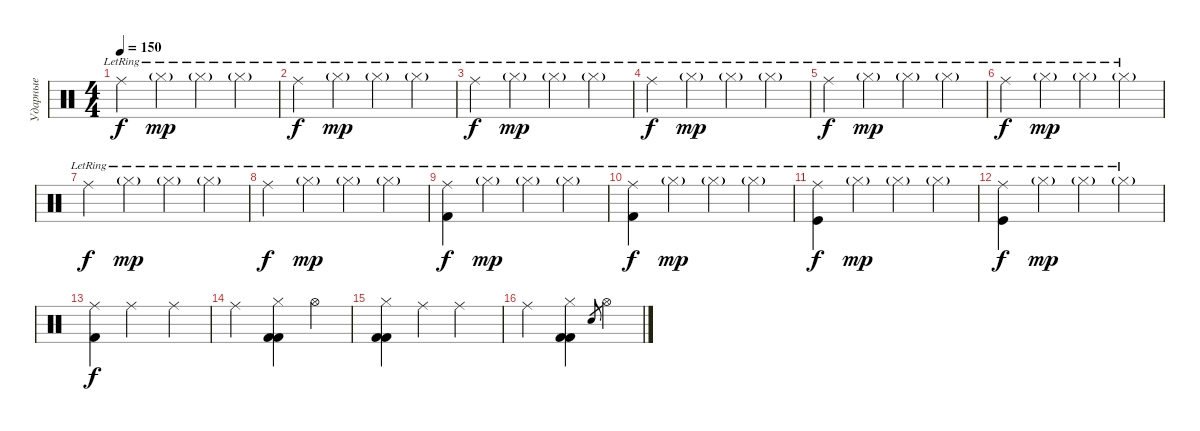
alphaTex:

\track ("Ударные" "Ударные") {instrument percussion}
\staff {score}
\articulation defaults
\ts (4 4)
\tempo 150
\clef neutral
\ks c "Ride (middle)"{lr}.4{dy f} "Hi-Hat (closed)"{g lr}.4{dy mp} "Hi-Hat (closed)"{g lr}.4 "Hi-Hat (closed)"{g lr}.4
|
"Ride (middle)"{lr}.4{dy f} "Hi-Hat (closed)"{g lr}.4{dy mp} "Hi-Hat (closed)"{g lr}.4 "Hi-Hat (closed)"{g lr}.4 |
"Ride (middle)"{lr}.4{dy f} "Hi-Hat (closed)"{g lr}.4{dy mp} "Hi-Hat (closed)"{g lr}.4 "Hi-Hat (closed)"{g lr}.4 |
"Ride (middle)"{lr}.4{dy f} "Hi-Hat (closed)"{g lr}.4{dy mp} "Hi-Hat (closed)"{g lr}.4 "Hi-Hat (closed)"{g lr}.4 |
"Ride (middle)"{lr}.4{dy f} "Hi-Hat (closed)"{g lr}.4{dy mp} "Hi-Hat (closed)"{g lr}.4 "Hi-Hat (closed)"{g lr}.4 |
"Ride (middle)"{lr}.4{dy f} "Hi-Hat (closed)"{g lr}.4{dy mp} "Hi-Hat (closed)"{g lr}.4 "Hi-Hat (closed)"{g lr}.4 |
"Ride (middle)"{lr}.4{dy f} "Hi-Hat (closed)"{g lr}.4{dy mp} "Hi-Hat (closed)"{g lr}.4 "Hi-Hat (closed)"{g lr}.4 |
"Ride (middle)"{lr}.4{dy f} "Hi-Hat (closed)"{g lr}.4{dy mp} "Hi-Hat (closed)"{g lr}.4 "Hi-Hat (closed)"{g lr}.4 |
("Kick (hit) 2" "Ride (middle)"{lr}).4{dy f} "Hi-Hat (closed)"{g lr}.4{dy mp} "Hi-Hat (closed)"{g lr}.4 "Hi-Hat (closed)"{g lr}.4 |
("Kick (hit) 2" "Ride (middle)"{lr}).4{dy f} "Hi-Hat (closed)"{g lr}.4{dy mp} "Hi-Hat (closed)"{g lr}.4 "Hi-Hat (closed)"{g lr}.4 |
("Kick (hit)" "Ride (middle)"{lr}).4{dy f} "Hi-Hat (closed)"{g lr}.4{dy mp} "Hi-Hat (closed)"{g lr}.4 "Hi-Hat (closed)"{g lr}.4 |
("Kick (hit)" "Ride (middle)"{lr}).4{dy f} "Hi-Hat (closed)"{g lr}.4{dy mp} "Hi-Hat (closed)"{g lr}.4 "Hi-Hat (closed)"{g lr}.4 |
("Kick (hit) 2" "Ride (middle)").4{dy f} "Ride (middle)".2 "Ride (middle)".4 |
"Ride (middle)".2 ("Kick (hit) 2" "Kick (hit) 2" "Hi-Hat (closed)").4 "Hi-Hat (open)".4 |
("Hi-Hat (closed)" "Kick (hit) 2" "Kick (hit) 2").4 "Ride (middle)".4 "Ride (middle)".2 |
"Ride (middle)".2 ("Kick (hit) 2" "Kick (hit) 2" "Hi-Hat (closed)").4 "Electric Snare (hit)".8{gr} "Hi-Hat (open)".4
